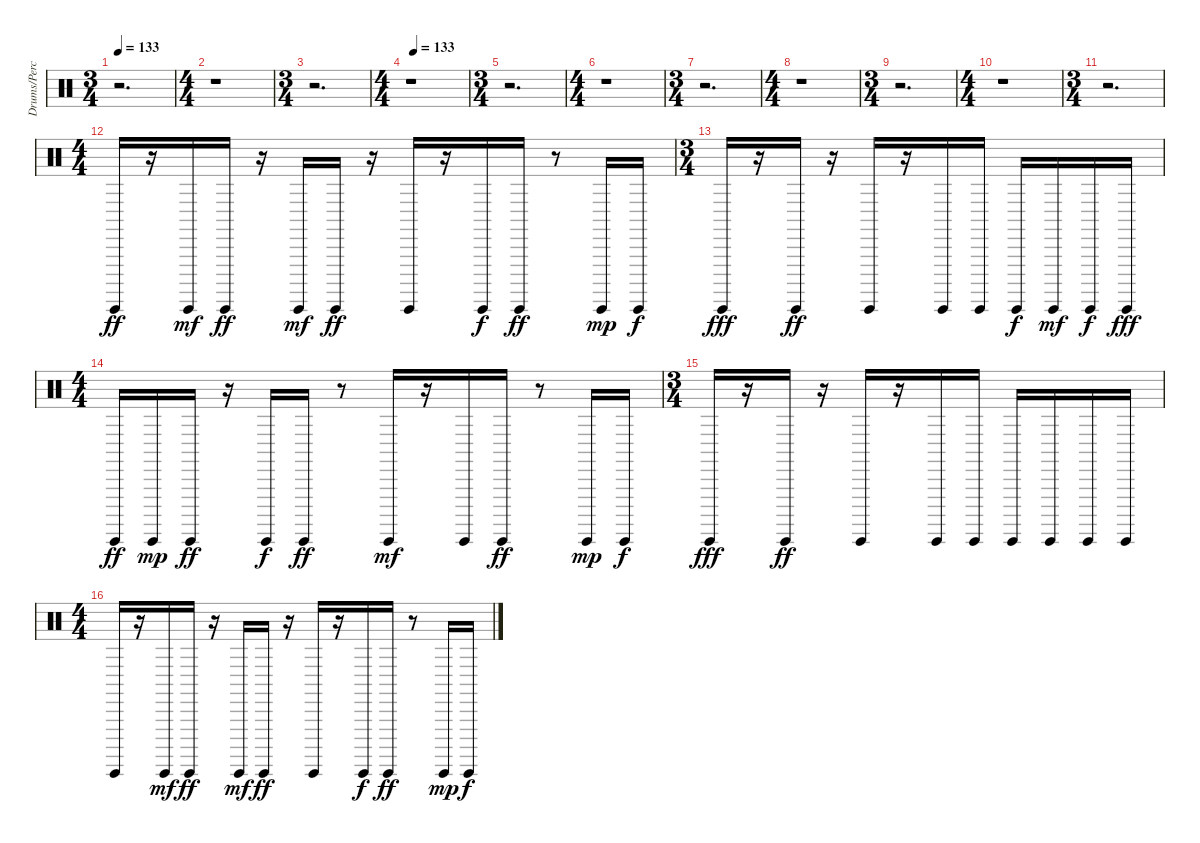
\track ("Drums/Percussion" "Drums/Perc") {instrument percussion}
\staff {score}
\articulation defaults
\ts (3 4)
\tempo 133
\clef neutral
\ks c
r.2{d dy ff} |
\ts (4 4)
r.1 |
\ts (3 4)
r.2{d} |
\ts (4 4)
\tempo (133 0.0625)
r.1 |
\ts (3 4)
r.2{d} |
\ts (4 4)
r.1 |
\ts (3 4)
r.2{d} |
\ts (4 4)
r.1 |
\ts (3 4)
r.2{d} |
\ts (4 4)
r.1 |
\ts (3 4)
r.2{d} |
\ts (4 4)
"Guiro (hit)".16 r.16 "Guiro (hit)".16{dy mf} "Guiro (hit)".16{dy ff} r.16 "Guiro (hit)".16{dy mf} "Guiro (hit)".16{dy ff} r.16 "Guiro (hit)".16 r.16 "Guiro (hit)".16{dy f} "Guiro (hit)".16{dy ff} r.8 "Guiro (hit)".16{dy mp} "Guiro (hit)".16{dy f} |
\ts (3 4)
"Guiro (hit)".16{dy fff} r.16 "Guiro (hit)".16{dy ff} r.16 "Guiro (hit)".16 r.16 "Guiro (hit)".16 "Guiro (hit)".16 "Guiro (hit)".16{dy f} "Guiro (hit)".16{dy mf} "Guiro (hit)".16{dy f} "Guiro (hit)".16{dy fff} |
\ts (4 4)
"Guiro (hit)".16{dy ff} "Guiro (hit)".16{dy mp} "Guiro (hit)".16{dy ff} r.16 "Guiro (hit)".16{dy f} "Guiro (hit)".16{dy ff} r.8 "Guiro (hit)".16{dy mf} r.16 "Guiro (hit)".16 "Guiro (hit)".16{dy ff} r.8 "Guiro (hit)".16{dy mp} "Guiro (hit)".16{dy f} |
\ts (3 4)
"Guiro (hit)".16{dy fff} r.16 "Guiro (hit)".16{dy ff} r.16 "Guiro (hit)".16 r.16 "Guiro (hit)".16 "Guiro (hit)".16 "Guiro (hit)".16 "Guiro (hit)".16 "Guiro (hit)".16 "Guiro (hit)".16 |
\ts (4 4)
"Guiro (hit)".16 r.16 "Guiro (hit)".16{dy mf} "Guiro (hit)".16{dy ff} r.16 "Guiro (hit)".16{dy mf} "Guiro (hit)".16{dy ff} r.16 "Guiro (hit)".16 r.16 "Guiro (hit)".16{dy f} "Guiro (hit)".16{dy ff} r.8 "Guiro (hit)".16{dy mp} "Guiro (hit)".16{dy f}
